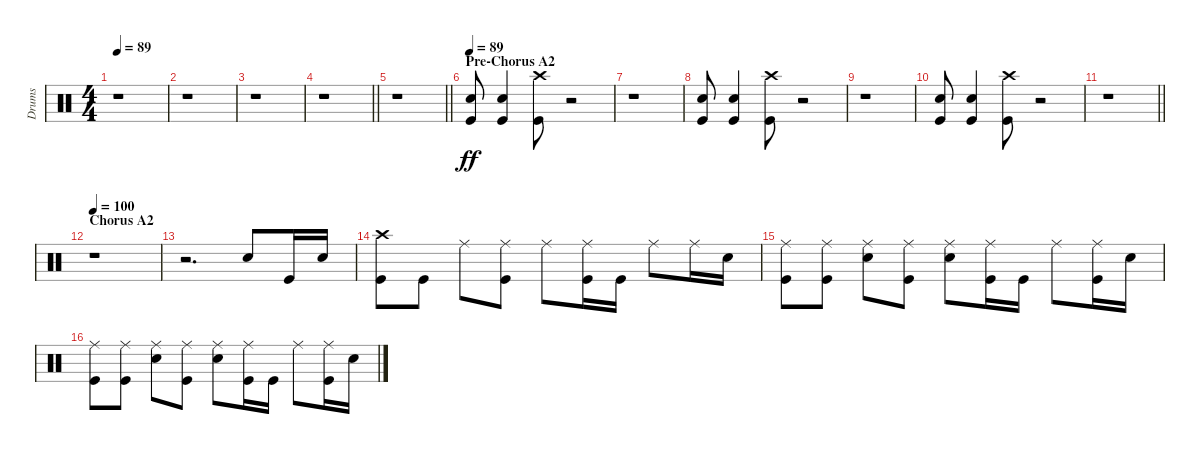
\track ("Drums" "Drums") {instrument percussion}
\staff {score}
\articulation defaults
\ts (4 4)
\tempo 89
\clef neutral
\ks c
r.1{dy ff} |
r.1 |
r.1 |
\barLineRight lightlight
r.1 |
\barLineRight lightlight
r.1 |
\section ("" "Pre-Chorus A2")
\tempo 89
("Electric Snare (hit)" "Kick (hit)").8 ("Electric Snare (hit)" "Kick (hit)").4 ("Crash high (hit)" "Kick (hit)").8 r.2 |
r.1 |
("Electric Snare (hit)" "Kick (hit)").8 ("Electric Snare (hit)" "Kick (hit)").4 ("Crash high (hit)" "Kick (hit)").8 r.2 |
r.1 |
("Electric Snare (hit)" "Kick (hit)").8 ("Electric Snare (hit)" "Kick (hit)").4 ("Crash high (hit)" "Kick (hit)").8 r.2 |
\barLineRight lightlight
r.1 |
\section ("" "Chorus A2")
\tempo 100
r.1 |
r.2{d} "Electric Snare (hit)".8 "Kick (hit)".16 "Electric Snare (hit)".16 |
("Crash high (hit)" "Kick (hit)").8 "Kick (hit)".8 "Ride (middle)".8 ("Ride (middle)" "Kick (hit)").8 "Ride (middle)".8 ("Ride (middle)" "Kick (hit)").16 "Kick (hit)".16 "Ride (middle)".8 "Ride (middle)".16 "Electric Snare (hit)".16 |
("Ride (middle)" "Kick (hit)").8 ("Ride (middle)" "Kick (hit)").8 ("Ride (middle)" "Electric Snare (hit)").8 ("Ride (middle)" "Kick (hit)").8 ("Ride (middle)" "Electric Snare (hit)").8 ("Ride (middle)" "Kick (hit)").16 "Kick (hit)".16 "Ride (middle)".8 ("Ride (middle)" "Kick (hit)").16 "Electric Snare (hit)".16 |
("Ride (middle)" "Kick (hit)").8 ("Ride (middle)" "Kick (hit)").8 ("Ride (middle)" "Electric Snare (hit)").8 ("Ride (middle)" "Kick (hit)").8 ("Ride (middle)" "Electric Snare (hit)").8 ("Ride (middle)" "Kick (hit)").16 "Kick (hit)".16 "Ride (middle)".8 ("Ride (middle)" "Kick (hit)").16 "Electric Snare (hit)".16
